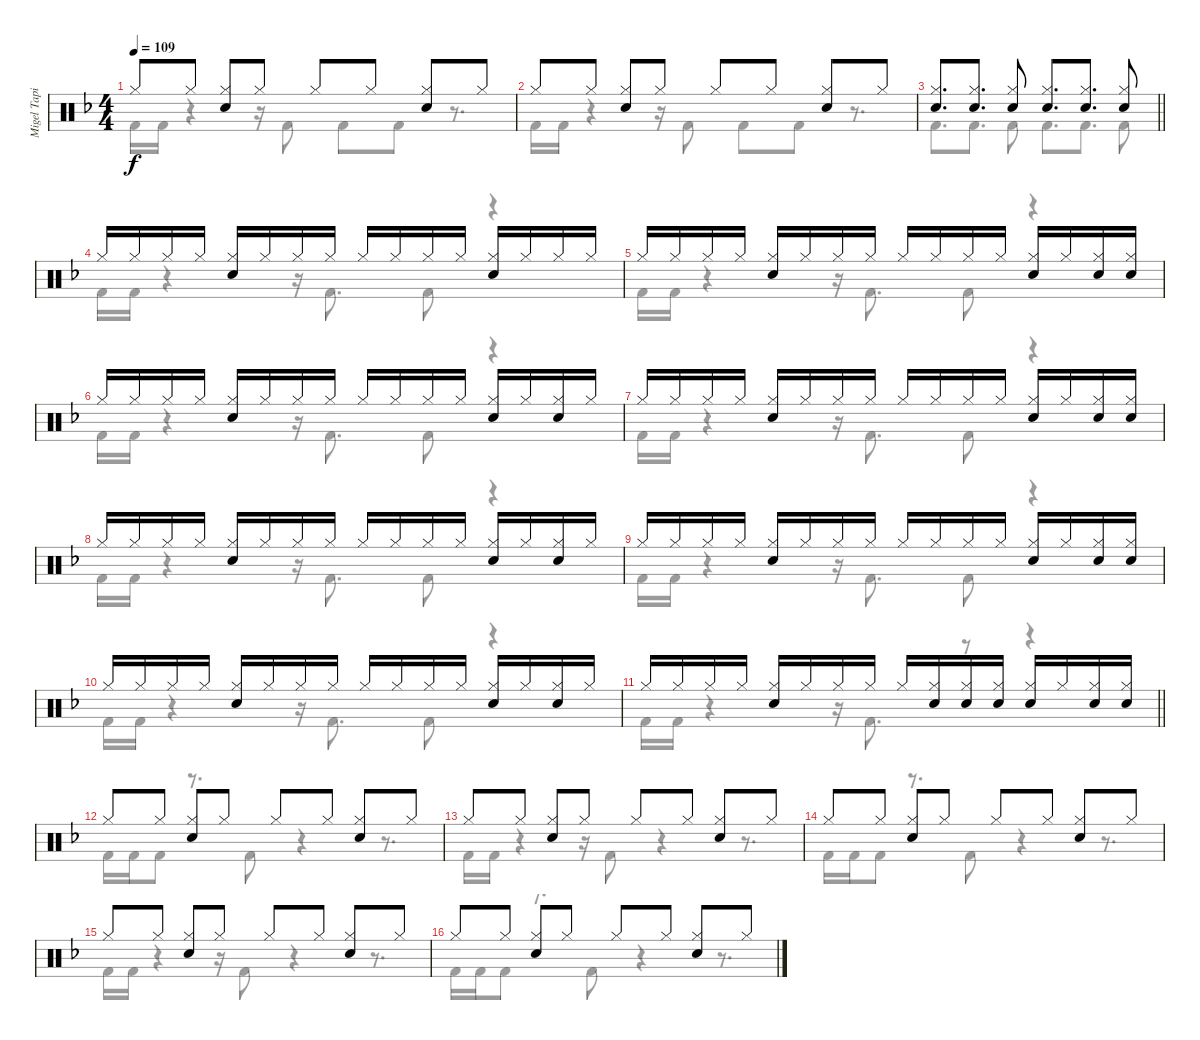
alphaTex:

\track ("Migel Tapia (Batería)" "Migel Tapi") {instrument percussion}
\staff {score}
\articulation defaults
\voice
\ts (4 4)
\tempo 109
\clef neutral
\ks dminor "Hi-Hat (closed)".8{dy f} "Hi-Hat (closed)".8
("Hi-Hat (closed)" "Snare (hit) 2").8 "Hi-Hat (closed)".8 "Hi-Hat (closed)".8 "Hi-Hat (closed)".8 ("Hi-Hat (closed)" "Snare (hit) 2").8 "Hi-Hat (closed)".8 |
"Hi-Hat (closed)".8 "Hi-Hat (closed)".8 ("Hi-Hat (closed)" "Snare (hit) 2").8 "Hi-Hat (closed)".8 "Hi-Hat (closed)".8 "Hi-Hat (closed)".8 ("Hi-Hat (closed)" "Snare (hit) 2").8 "Hi-Hat (closed)".8 |
\barLineRight lightlight
("Hi-Hat (closed)" "Snare (hit) 2").8{d} ("Hi-Hat (closed)" "Snare (hit) 2").8{d} ("Hi-Hat (closed)" "Snare (hit) 2").8 ("Hi-Hat (closed)" "Snare (hit) 2").8{d} ("Hi-Hat (closed)" "Snare (hit) 2").8{d} ("Hi-Hat (closed)" "Snare (hit) 2").8 |
"Hi-Hat (closed)".16 "Hi-Hat (closed)".16 "Hi-Hat (closed)".16 "Hi-Hat (closed)".16 ("Hi-Hat (closed)" "Snare (hit) 2").16 "Hi-Hat (closed)".16 "Hi-Hat (closed)".16 "Hi-Hat (closed)".16 "Hi-Hat (closed)".16 "Hi-Hat (closed)".16 "Hi-Hat (closed)".16 "Hi-Hat (closed)".16 ("Hi-Hat (closed)" "Snare (hit) 2").16 "Hi-Hat (closed)".16 "Hi-Hat (closed)".16 "Hi-Hat (closed)".16 |
"Hi-Hat (closed)".16 "Hi-Hat (closed)".16 "Hi-Hat (closed)".16 "Hi-Hat (closed)".16 ("Hi-Hat (closed)" "Snare (hit) 2").16 "Hi-Hat (closed)".16 "Hi-Hat (closed)".16 "Hi-Hat (closed)".16 "Hi-Hat (closed)".16 "Hi-Hat (closed)".16 "Hi-Hat (closed)".16 "Hi-Hat (closed)".16 ("Hi-Hat (closed)" "Snare (hit) 2").16 "Hi-Hat (closed)".16 ("Hi-Hat (closed)" "Snare (hit) 2").16 ("Hi-Hat (closed)" "Snare (hit) 2").16 |
"Hi-Hat (closed)".16 "Hi-Hat (closed)".16 "Hi-Hat (closed)".16 "Hi-Hat (closed)".16 ("Hi-Hat (closed)" "Snare (hit) 2").16 "Hi-Hat (closed)".16 "Hi-Hat (closed)".16 "Hi-Hat (closed)".16 "Hi-Hat (closed)".16 "Hi-Hat (closed)".16 "Hi-Hat (closed)".16 "Hi-Hat (closed)".16 ("Hi-Hat (closed)" "Snare (hit) 2").16 "Hi-Hat (closed)".16 ("Hi-Hat (closed)" "Snare (hit) 2").16 "Hi-Hat (closed)".16 |
"Hi-Hat (closed)".16 "Hi-Hat (closed)".16 "Hi-Hat (closed)".16 "Hi-Hat (closed)".16 ("Hi-Hat (closed)" "Snare (hit) 2").16 "Hi-Hat (closed)".16 "Hi-Hat (closed)".16 "Hi-Hat (closed)".16 "Hi-Hat (closed)".16 "Hi-Hat (closed)".16 "Hi-Hat (closed)".16 "Hi-Hat (closed)".16 ("Hi-Hat (closed)" "Snare (hit) 2").16 "Hi-Hat (closed)".16 ("Hi-Hat (closed)" "Snare (hit) 2").16 ("Hi-Hat (closed)" "Snare (hit) 2").16 |
"Hi-Hat (closed)".16 "Hi-Hat (closed)".16 "Hi-Hat (closed)".16 "Hi-Hat (closed)".16 ("Hi-Hat (closed)" "Snare (hit) 2").16 "Hi-Hat (closed)".16 "Hi-Hat (closed)".16 "Hi-Hat (closed)".16 "Hi-Hat (closed)".16 "Hi-Hat (closed)".16 "Hi-Hat (closed)".16 "Hi-Hat (closed)".16 ("Hi-Hat (closed)" "Snare (hit) 2").16 "Hi-Hat (closed)".16 ("Hi-Hat (closed)" "Snare (hit) 2").16 "Hi-Hat (closed)".16 |
"Hi-Hat (closed)".16 "Hi-Hat (closed)".16 "Hi-Hat (closed)".16 "Hi-Hat (closed)".16 ("Hi-Hat (closed)" "Snare (hit) 2").16 "Hi-Hat (closed)".16 "Hi-Hat (closed)".16 "Hi-Hat (closed)".16 "Hi-Hat (closed)".16 "Hi-Hat (closed)".16 "Hi-Hat (closed)".16 "Hi-Hat (closed)".16 ("Hi-Hat (closed)" "Snare (hit) 2").16 "Hi-Hat (closed)".16 ("Hi-Hat (closed)" "Snare (hit) 2").16 ("Hi-Hat (closed)" "Snare (hit) 2").16 |
"Hi-Hat (closed)".16 "Hi-Hat (closed)".16 "Hi-Hat (closed)".16 "Hi-Hat (closed)".16 ("Hi-Hat (closed)" "Snare (hit) 2").16 "Hi-Hat (closed)".16 "Hi-Hat (closed)".16 "Hi-Hat (closed)".16 "Hi-Hat (closed)".16 "Hi-Hat (closed)".16 "Hi-Hat (closed)".16 "Hi-Hat (closed)".16 ("Hi-Hat (closed)" "Snare (hit) 2").16 "Hi-Hat (closed)".16 ("Hi-Hat (closed)" "Snare (hit) 2").16 "Hi-Hat (closed)".16 |
\barLineRight lightlight "Hi-Hat (closed)".16 "Hi-Hat (closed)".16 "Hi-Hat (closed)".16 "Hi-Hat (closed)".16
("Hi-Hat (closed)" "Snare (hit) 2").16 "Hi-Hat (closed)".16 "Hi-Hat (closed)".16 "Hi-Hat (closed)".16 "Hi-Hat (closed)".16 ("Hi-Hat (closed)" "Snare (hit) 2").16 ("Hi-Hat (closed)" "Snare (hit) 2").16 ("Hi-Hat (closed)" "Snare (hit) 2").16 ("Hi-Hat (closed)" "Snare (hit) 2").16 "Hi-Hat (closed)".16 ("Hi-Hat (closed)" "Snare (hit) 2").16 ("Hi-Hat (closed)" "Snare (hit) 2").16 |
"Hi-Hat (closed)".8 "Hi-Hat (closed)".8 ("Hi-Hat (closed)" "Snare (hit) 2").8 "Hi-Hat (closed)".8 "Hi-Hat (closed)".8 "Hi-Hat (closed)".8 ("Hi-Hat (closed)" "Snare (hit) 2").8 "Hi-Hat (closed)".8 |
"Hi-Hat (closed)".8 "Hi-Hat (closed)".8 ("Hi-Hat (closed)" "Snare (hit) 2").8 "Hi-Hat (closed)".8 "Hi-Hat (closed)".8 "Hi-Hat (closed)".8 ("Hi-Hat (closed)" "Snare (hit) 2").8 "Hi-Hat (closed)".8 |
"Hi-Hat (closed)".8 "Hi-Hat (closed)".8 ("Hi-Hat (closed)" "Snare (hit) 2").8 "Hi-Hat (closed)".8 "Hi-Hat (closed)".8 "Hi-Hat (closed)".8 ("Hi-Hat (closed)" "Snare (hit) 2").8 "Hi-Hat (closed)".8 |
"Hi-Hat (closed)".8 "Hi-Hat (closed)".8 ("Hi-Hat (closed)" "Snare (hit) 2").8 "Hi-Hat (closed)".8 "Hi-Hat (closed)".8 "Hi-Hat (closed)".8 ("Hi-Hat (closed)" "Snare (hit) 2").8 "Hi-Hat (closed)".8 |
"Hi-Hat (closed)".8 "Hi-Hat (closed)".8 ("Hi-Hat (closed)" "Snare (hit) 2").8 "Hi-Hat (closed)".8 "Hi-Hat (closed)".8 "Hi-Hat (closed)".8 ("Hi-Hat (closed)" "Snare (hit) 2").8 "Hi-Hat (closed)".8
\voice
\clef neutral
\ottava regular
\simile none
\ks dminor "Kick (hit) 2".16{dy f} "Kick (hit) 2".16
r.4 r.16 "Kick (hit) 2".8 "Kick (hit) 2".8 "Kick (hit) 2".8 r.8{d} |
"Kick (hit) 2".16 "Kick (hit) 2".16 r.4 r.16 "Kick (hit) 2".8 "Kick (hit) 2".8 "Kick (hit) 2".8 r.8{d} |
\barLineRight lightlight "Kick (hit) 2".8{d} "Kick (hit) 2".8{d} "Kick (hit) 2".8 "Kick (hit) 2".8{d} "Kick (hit) 2".8{d} "Kick (hit) 2".8
|
"Kick (hit) 2".16 "Kick (hit) 2".16 r.4 r.16 "Kick (hit) 2".8{d} "Kick (hit) 2".8 r.4 |
"Kick (hit) 2".16 "Kick (hit) 2".16 r.4 r.16 "Kick (hit) 2".8{d} "Kick (hit) 2".8 r.4 |
"Kick (hit) 2".16 "Kick (hit) 2".16 r.4 r.16 "Kick (hit) 2".8{d} "Kick (hit) 2".8 r.4 |
"Kick (hit) 2".16 "Kick (hit) 2".16 r.4 r.16 "Kick (hit) 2".8{d} "Kick (hit) 2".8 r.4 |
"Kick (hit) 2".16 "Kick (hit) 2".16 r.4 r.16 "Kick (hit) 2".8{d} "Kick (hit) 2".8 r.4 |
"Kick (hit) 2".16 "Kick (hit) 2".16 r.4 r.16 "Kick (hit) 2".8{d} "Kick (hit) 2".8 r.4 |
"Kick (hit) 2".16 "Kick (hit) 2".16 r.4 r.16 "Kick (hit) 2".8{d} "Kick (hit) 2".8 r.4 |
\barLineRight lightlight "Kick (hit) 2".16 "Kick (hit) 2".16
r.4 r.16 "Kick (hit) 2".8{d} r.8 r.4 |
"Kick (hit) 2".16 "Kick (hit) 2".16 "Kick (hit) 2".8 r.8{d} "Kick (hit) 2".8 r.4 r.8{d} |
"Kick (hit) 2".16 "Kick (hit) 2".16 r.4 r.16 "Kick (hit) 2".8 r.4 r.8{d} |
"Kick (hit) 2".16 "Kick (hit) 2".16 "Kick (hit) 2".8 r.8{d} "Kick (hit) 2".8 r.4 r.8{d} |
"Kick (hit) 2".16 "Kick (hit) 2".16 r.4 r.16 "Kick (hit) 2".8 r.4 r.8{d} |
"Kick (hit) 2".16 "Kick (hit) 2".16 "Kick (hit) 2".8 r.8{d} "Kick (hit) 2".8 r.4 r.8{d}
